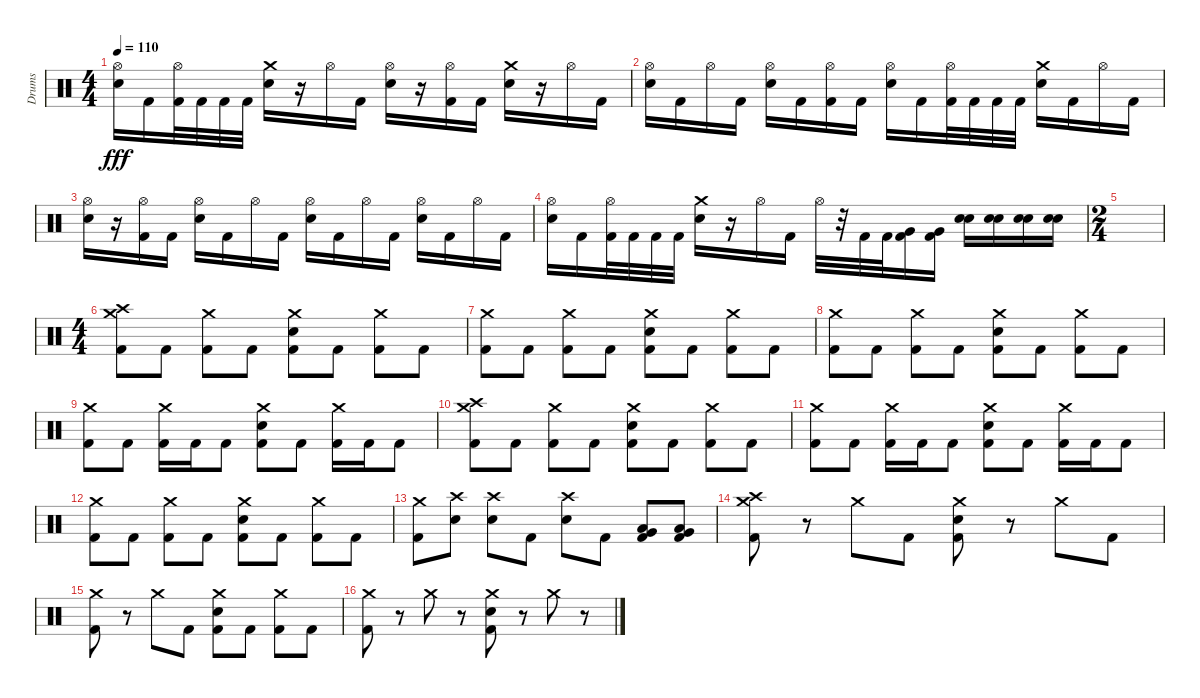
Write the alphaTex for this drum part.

\track ("Drums" "Drums") {instrument percussion}
\staff {score}
\articulation defaults
\ts (4 4)
\tempo 110
\clef neutral
\ks c
("Hi-Hat (open)" "Snare (hit) 2").16{dy fff} "Kick (hit) 2".16 ("Hi-Hat (open)" "Kick (hit) 2").32 "Kick (hit) 2".32 "Kick (hit) 2".32 "Kick (hit) 2".32 ("Crash medium (hit)" "Snare (hit) 2").16 r.16 "Hi-Hat (open)".16 "Kick (hit) 2".16 ("Hi-Hat (open)" "Snare (hit) 2").16 r.16 ("Hi-Hat (open)" "Kick (hit) 2").16 "Kick (hit) 2".16 ("Crash medium (hit)" "Snare (hit) 2").16 r.16 "Hi-Hat (open)".16 "Kick (hit) 2".16 |
("Hi-Hat (open)" "Snare (hit) 2").16 "Kick (hit) 2".16 "Hi-Hat (open)".16 "Kick (hit) 2".16 ("Hi-Hat (open)" "Snare (hit) 2").16 "Kick (hit) 2".16 ("Hi-Hat (open)" "Kick (hit) 2").16 "Kick (hit) 2".16 ("Hi-Hat (open)" "Snare (hit) 2").16 "Kick (hit) 2".16 ("Hi-Hat (open)" "Kick (hit) 2").32 "Kick (hit) 2".32 "Kick (hit) 2".32 "Kick (hit) 2".32 ("Crash medium (hit)" "Snare (hit) 2").16 "Kick (hit) 2".16 "Hi-Hat (open)".16 "Kick (hit) 2".16 |
("Hi-Hat (open)" "Snare (hit) 2").16 r.16 ("Hi-Hat (open)" "Kick (hit) 2").16 "Kick (hit) 2".16 ("Hi-Hat (open)" "Snare (hit) 2").16 "Kick (hit) 2".16 "Hi-Hat (open)".16 "Kick (hit) 2".16 ("Hi-Hat (open)" "Snare (hit) 2").16 "Kick (hit) 2".16 "Hi-Hat (open)".16 "Kick (hit) 2".16 ("Hi-Hat (open)" "Snare (hit) 2").16 "Kick (hit) 2".16 "Hi-Hat (open)".16 "Kick (hit) 2".16 |
("Hi-Hat (open)" "Snare (hit) 2").16 "Kick (hit) 2".16 ("Hi-Hat (open)" "Kick (hit) 2").32 "Kick (hit) 2".32 "Kick (hit) 2".32 "Kick (hit) 2".32 ("Crash medium (hit)" "Snare (hit) 2").16 r.16 "Hi-Hat (open)".16 "Kick (hit) 2".16 "Hi-Hat (open)".32 r.32 "Kick (hit) 2".32 "Kick (hit) 2".32 ("Very Low Tom (hit)" "Kick (hit) 2").16 ("Very Low Tom (hit)" "Kick (hit) 2").16 ("Electric Snare (hit)" "Snare (hit) 2").16 ("Electric Snare (hit)" "Snare (hit) 2").16 ("Electric Snare (hit)" "Snare (hit) 2").16 ("Electric Snare (hit)" "Snare (hit) 2").16 |
\ts (2 4)
|
\ts (4 4)
("Crash medium (hit)" "Crash high (hit)" "Kick (hit) 2").8 "Kick (hit) 2".8 ("Crash medium (hit)" "Kick (hit) 2").8 "Kick (hit) 2".8 ("Crash medium (hit)" "Snare (hit) 2" "Kick (hit) 2").8 "Kick (hit) 2".8 ("Crash medium (hit)" "Kick (hit) 2").8 "Kick (hit) 2".8 |
("Crash medium (hit)" "Kick (hit) 2").8 "Kick (hit) 2".8 ("Crash medium (hit)" "Kick (hit) 2").8 "Kick (hit) 2".8 ("Crash medium (hit)" "Snare (hit) 2" "Kick (hit) 2").8 "Kick (hit) 2".8 ("Crash medium (hit)" "Kick (hit) 2").8 "Kick (hit) 2".8 |
("Crash medium (hit)" "Kick (hit) 2").8 "Kick (hit) 2".8 ("Crash medium (hit)" "Kick (hit) 2").8 "Kick (hit) 2".8 ("Crash medium (hit)" "Snare (hit) 2" "Kick (hit) 2").8 "Kick (hit) 2".8 ("Crash medium (hit)" "Kick (hit) 2").8 "Kick (hit) 2".8 |
("Crash medium (hit)" "Kick (hit) 2").8 "Kick (hit) 2".8 ("Crash medium (hit)" "Kick (hit) 2").16 "Kick (hit) 2".16 "Kick (hit) 2".8 ("Crash medium (hit)" "Snare (hit) 2" "Kick (hit) 2").8 "Kick (hit) 2".8 ("Crash medium (hit)" "Kick (hit) 2").16 "Kick (hit) 2".16 "Kick (hit) 2".8 |
("Crash high (hit)" "Crash medium (hit)" "Kick (hit) 2").8 "Kick (hit) 2".8 ("Crash medium (hit)" "Kick (hit) 2").8 "Kick (hit) 2".8 ("Crash medium (hit)" "Snare (hit) 2" "Kick (hit) 2").8 "Kick (hit) 2".8 ("Crash medium (hit)" "Kick (hit) 2").8 "Kick (hit) 2".8 |
("Crash medium (hit)" "Kick (hit) 2").8 "Kick (hit) 2".8 ("Crash medium (hit)" "Kick (hit) 2").16 "Kick (hit) 2".16 "Kick (hit) 2".8 ("Crash medium (hit)" "Snare (hit) 2" "Kick (hit) 2").8 "Kick (hit) 2".8 ("Crash medium (hit)" "Kick (hit) 2").16 "Kick (hit) 2".16 "Kick (hit) 2".8 |
("Crash medium (hit)" "Kick (hit) 2").8 "Kick (hit) 2".8 ("Crash medium (hit)" "Kick (hit) 2").8 "Kick (hit) 2".8 ("Crash medium (hit)" "Snare (hit) 2" "Kick (hit) 2").8 "Kick (hit) 2".8 ("Crash medium (hit)" "Kick (hit) 2").8 "Kick (hit) 2".8 |
("Crash medium (hit)" "Kick (hit) 2").8 ("Crash high (hit)" "Snare (hit) 2").8 ("Crash high (hit)" "Snare (hit) 2").8 "Kick (hit) 2".8 ("Crash high (hit)" "Snare (hit) 2").8 "Kick (hit) 2".8 ("Low Tom (hit)" "Very Low Tom (hit)" "Kick (hit) 2").8 ("Very Low Tom (hit)" "Low Floor Tom (hit)" "Kick (hit) 2").8 |
("Crash medium (hit)" "Crash high (hit)" "Kick (hit) 2").8 r.8 "Crash medium (hit)".8 "Kick (hit) 2".8 ("Crash medium (hit)" "Snare (hit) 2" "Kick (hit) 2").8 r.8 "Crash medium (hit)".8 "Kick (hit) 2".8 |
("Crash medium (hit)" "Kick (hit) 2").8 r.8 "Crash medium (hit)".8 "Kick (hit) 2".8 ("Crash medium (hit)" "Snare (hit) 2" "Kick (hit) 2").8 "Kick (hit) 2".8 ("Crash medium (hit)" "Kick (hit) 2").8 "Kick (hit) 2".8 |
("Crash medium (hit)" "Kick (hit) 2").8 r.8 "Crash medium (hit)".8 r.8 ("Crash medium (hit)" "Snare (hit) 2" "Kick (hit) 2").8 r.8 "Crash medium (hit)".8 r.8
